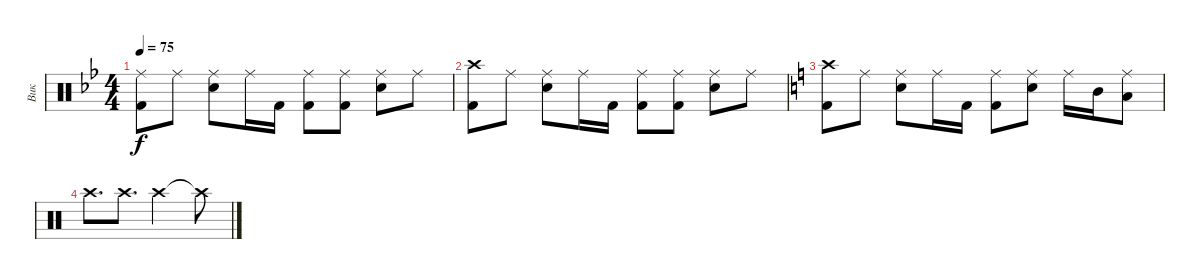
\track ("Вик" "Вик") {instrument percussion}
\staff {score}
\articulation defaults
\ts (4 4)
\tempo 75
\clef neutral
\ks gminor
("Ride (middle)" "Kick (hit) 2").8{dy f} "Ride (middle)".8 ("Ride (middle)" "Electric Snare (hit)").8 "Ride (middle)".16 "Kick (hit) 2".16 ("Ride (middle)" "Kick (hit) 2").8 ("Ride (middle)" "Kick (hit) 2").8 ("Ride (middle)" "Electric Snare (hit)").8 "Ride (middle)".8 |
("Crash high (hit)" "Kick (hit) 2").8 "Ride (middle)".8 ("Ride (middle)" "Electric Snare (hit)").8 "Ride (middle)".16 "Kick (hit) 2".16 ("Ride (middle)" "Kick (hit) 2").8 ("Ride (middle)" "Kick (hit) 2").8 ("Ride (middle)" "Electric Snare (hit)").8 "Ride (middle)".8 |
\ks aminor
("Crash high (hit)" "Kick (hit) 2").8 "Ride (middle)".8 ("Ride (middle)" "Electric Snare (hit)").8 "Ride (middle)".16 "Kick (hit) 2".16 ("Ride (middle)" "Kick (hit) 2").8 ("Ride (middle)" "Electric Snare (hit)").8 "Ride (middle)".16 "Mid Tom (hit)".16 ("Ride (middle)" "Low Tom (hit)").8 |
"Crash high (hit)".8{d} "Crash high (hit)".8{d} "Crash high (hit)".2 "Crash high (hit)"{t}.8
